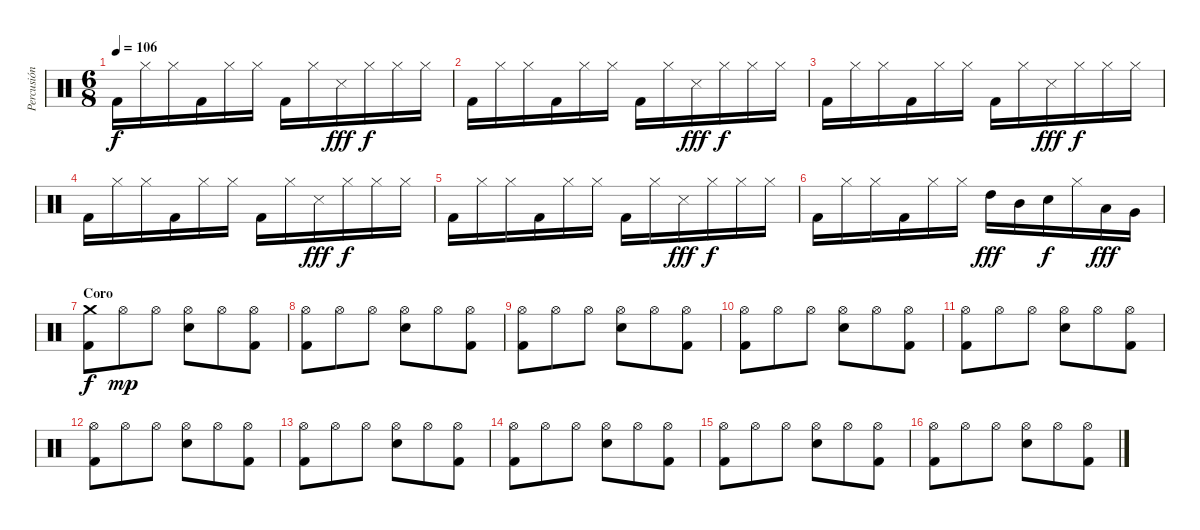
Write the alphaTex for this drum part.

\track ("Percusión" "Percusión") {instrument percussion}
\staff {score}
\articulation defaults
\ts (6 8)
\tempo 106
\clef neutral
\ks c "Kick (hit) 2".16{dy f} "Hi-Hat (closed)".16 "Hi-Hat (closed)".16 "Kick (hit) 2".16 "Hi-Hat (closed)".16 "Hi-Hat (closed)".16 "Kick (hit) 2".16 "Hi-Hat (closed)".16 "Snare (side stick) 3".16{dy fff} "Hi-Hat (closed)".16{dy f} "Hi-Hat (closed)".16 "Hi-Hat (closed)".16
|
"Kick (hit) 2".16 "Hi-Hat (closed)".16 "Hi-Hat (closed)".16 "Kick (hit) 2".16 "Hi-Hat (closed)".16 "Hi-Hat (closed)".16 "Kick (hit) 2".16 "Hi-Hat (closed)".16 "Snare (side stick) 3".16{dy fff} "Hi-Hat (closed)".16{dy f} "Hi-Hat (closed)".16 "Hi-Hat (closed)".16 |
"Kick (hit) 2".16 "Hi-Hat (closed)".16 "Hi-Hat (closed)".16 "Kick (hit) 2".16 "Hi-Hat (closed)".16 "Hi-Hat (closed)".16 "Kick (hit) 2".16 "Hi-Hat (closed)".16 "Snare (side stick) 3".16{dy fff} "Hi-Hat (closed)".16{dy f} "Hi-Hat (closed)".16 "Hi-Hat (closed)".16 |
"Kick (hit) 2".16 "Hi-Hat (closed)".16 "Hi-Hat (closed)".16 "Kick (hit) 2".16 "Hi-Hat (closed)".16 "Hi-Hat (closed)".16 "Kick (hit) 2".16 "Hi-Hat (closed)".16 "Snare (side stick) 3".16{dy fff} "Hi-Hat (closed)".16{dy f} "Hi-Hat (closed)".16 "Hi-Hat (closed)".16 |
"Kick (hit) 2".16 "Hi-Hat (closed)".16 "Hi-Hat (closed)".16 "Kick (hit) 2".16 "Hi-Hat (closed)".16 "Hi-Hat (closed)".16 "Kick (hit) 2".16 "Hi-Hat (closed)".16 "Snare (side stick) 3".16{dy fff} "Hi-Hat (closed)".16{dy f} "Hi-Hat (closed)".16 "Hi-Hat (closed)".16 |
"Kick (hit) 2".16 "Hi-Hat (closed)".16 "Hi-Hat (closed)".16 "Kick (hit) 2".16 "Hi-Hat (closed)".16 "Hi-Hat (closed)".16 "High Tom (hit)".16{dy fff} "Mid Tom (hit)".16 "Snare (hit) 2".16{dy f} "Hi-Hat (closed)".16 "Low Tom (hit)".16{dy fff} "Very Low Tom (hit)".16 |
\section ("" "Coro")
("Crash medium (hit)" "Kick (hit) 2").8{dy f} "Hi-Hat (open)".8{dy mp} "Hi-Hat (open)".8 ("Hi-Hat (open)" "Snare (hit) 2").8 "Hi-Hat (open)".8 ("Hi-Hat (open)" "Kick (hit) 2").8 |
("Hi-Hat (open)" "Kick (hit) 2").8 "Hi-Hat (open)".8 "Hi-Hat (open)".8 ("Hi-Hat (open)" "Snare (hit) 2").8 "Hi-Hat (open)".8 ("Hi-Hat (open)" "Kick (hit) 2").8 |
("Hi-Hat (open)" "Kick (hit) 2").8 "Hi-Hat (open)".8 "Hi-Hat (open)".8 ("Hi-Hat (open)" "Snare (hit) 2").8 "Hi-Hat (open)".8 ("Hi-Hat (open)" "Kick (hit) 2").8 |
("Hi-Hat (open)" "Kick (hit) 2").8 "Hi-Hat (open)".8 "Hi-Hat (open)".8 ("Hi-Hat (open)" "Snare (hit) 2").8 "Hi-Hat (open)".8 ("Hi-Hat (open)" "Kick (hit) 2").8 |
("Hi-Hat (open)" "Kick (hit) 2").8 "Hi-Hat (open)".8 "Hi-Hat (open)".8 ("Hi-Hat (open)" "Snare (hit) 2").8 "Hi-Hat (open)".8 ("Hi-Hat (open)" "Kick (hit) 2").8 |
("Hi-Hat (open)" "Kick (hit) 2").8 "Hi-Hat (open)".8 "Hi-Hat (open)".8 ("Hi-Hat (open)" "Snare (hit) 2").8 "Hi-Hat (open)".8 ("Hi-Hat (open)" "Kick (hit) 2").8 |
("Hi-Hat (open)" "Kick (hit) 2").8 "Hi-Hat (open)".8 "Hi-Hat (open)".8 ("Hi-Hat (open)" "Snare (hit) 2").8 "Hi-Hat (open)".8 ("Hi-Hat (open)" "Kick (hit) 2").8 |
("Hi-Hat (open)" "Kick (hit) 2").8 "Hi-Hat (open)".8 "Hi-Hat (open)".8 ("Hi-Hat (open)" "Snare (hit) 2").8 "Hi-Hat (open)".8 ("Hi-Hat (open)" "Kick (hit) 2").8 |
("Hi-Hat (open)" "Kick (hit) 2").8 "Hi-Hat (open)".8 "Hi-Hat (open)".8 ("Hi-Hat (open)" "Snare (hit) 2").8 "Hi-Hat (open)".8 ("Hi-Hat (open)" "Kick (hit) 2").8 |
("Hi-Hat (open)" "Kick (hit) 2").8 "Hi-Hat (open)".8 "Hi-Hat (open)".8 ("Hi-Hat (open)" "Snare (hit) 2").8 "Hi-Hat (open)".8 ("Hi-Hat (open)" "Kick (hit) 2").8
